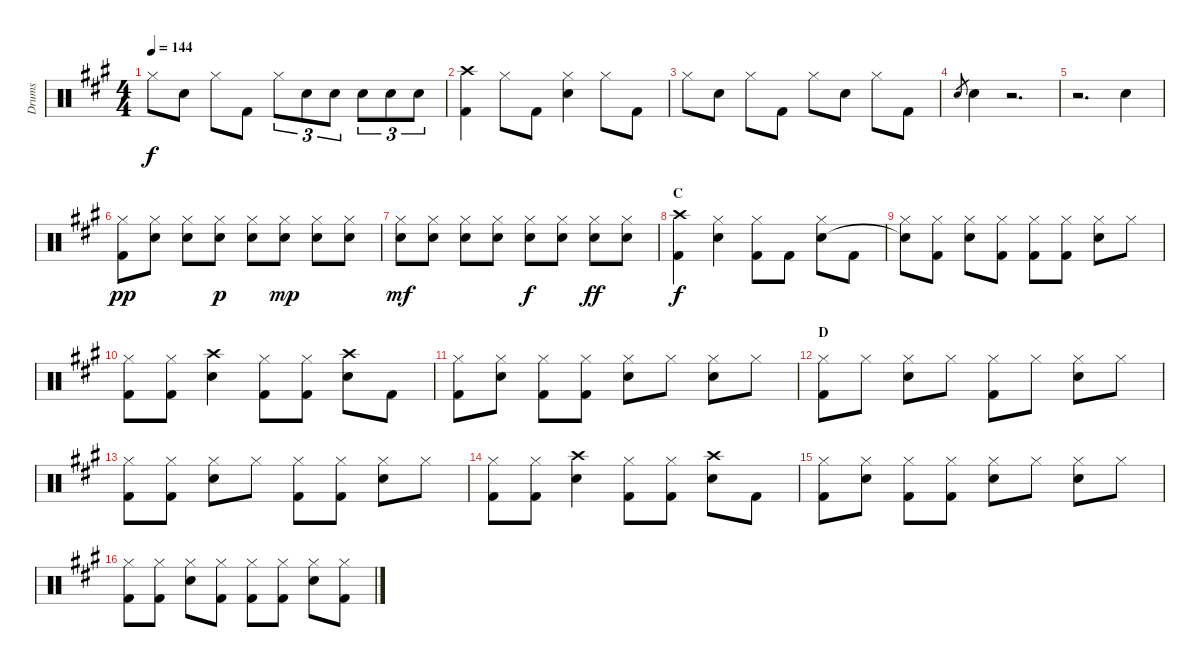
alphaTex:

\track ("Drums" "Drums") {instrument percussion}
\staff {score}
\articulation defaults
\ts (4 4)
\tempo 144
\clef neutral
\ks a "Hi-Hat (closed)".8{dy f} "Snare (hit) 2".8 "Hi-Hat (closed)".8 "Kick (hit) 2".8 "Hi-Hat (closed)".8{tu (3 2)} "Snare (hit) 2".8{tu (3 2)} "Snare (hit) 2".8{tu (3 2)} "Snare (hit) 2".8{tu (3 2)} "Snare (hit) 2".8{tu (3 2)} "Snare (hit) 2".8{tu (3 2)}
|
("Crash high (hit)" "Kick (hit) 2").4 "Hi-Hat (closed)".8 "Kick (hit) 2".8 ("Hi-Hat (closed)" "Snare (hit) 2").4 "Hi-Hat (closed)".8 "Kick (hit) 2".8 |
"Hi-Hat (closed)".8 "Snare (hit) 2".8 "Hi-Hat (closed)".8 "Kick (hit) 2".8 "Hi-Hat (closed)".8 "Snare (hit) 2".8 "Hi-Hat (closed)".8 "Kick (hit) 2".8 |
"Snare (hit) 2".8{gr} "Snare (hit) 2".4 r.2{d} |
r.2{d} "Snare (hit) 2".4 |
("Hi-Hat (closed)" "Kick (hit) 2").8{dy pp} ("Hi-Hat (closed)" "Snare (hit) 2").8 ("Hi-Hat (closed)" "Snare (hit) 2").8 ("Hi-Hat (closed)" "Snare (hit) 2").8{dy p} ("Hi-Hat (closed)" "Snare (hit) 2").8 ("Hi-Hat (closed)" "Snare (hit) 2").8{dy mp} ("Hi-Hat (closed)" "Snare (hit) 2").8 ("Hi-Hat (closed)" "Snare (hit) 2").8 |
("Hi-Hat (closed)" "Snare (hit) 2").8{dy mf} ("Hi-Hat (closed)" "Snare (hit) 2").8 ("Hi-Hat (closed)" "Snare (hit) 2").8 ("Hi-Hat (closed)" "Snare (hit) 2").8 ("Hi-Hat (closed)" "Snare (hit) 2").8{dy f} ("Hi-Hat (closed)" "Snare (hit) 2").8 ("Hi-Hat (closed)" "Snare (hit) 2").8{dy ff} ("Hi-Hat (closed)" "Snare (hit) 2").8 |
\section ("" "C")
("Crash high (hit)" "Kick (hit) 2").4{dy f} ("Hi-Hat (closed)" "Snare (hit) 2").4 ("Hi-Hat (closed)" "Kick (hit) 2").8 "Kick (hit) 2".8 ("Hi-Hat (closed)" "Snare (hit) 2").8 "Kick (hit) 2".8 |
("Hi-Hat (closed)" "Snare (hit)"{t}).8 ("Hi-Hat (closed)" "Kick (hit) 2").8 ("Hi-Hat (closed)" "Snare (hit) 2").8 ("Hi-Hat (closed)" "Kick (hit) 2").8 ("Hi-Hat (closed)" "Kick (hit) 2").8 ("Hi-Hat (closed)" "Kick (hit) 2").8 ("Hi-Hat (closed)" "Snare (hit) 2").8 "Hi-Hat (closed)".8 |
("Hi-Hat (closed)" "Kick (hit) 2").8 ("Hi-Hat (closed)" "Kick (hit) 2").8 ("Crash high (hit)" "Snare (hit) 2").4 ("Hi-Hat (closed)" "Kick (hit) 2").8 ("Hi-Hat (closed)" "Kick (hit) 2").8 ("Crash high (hit)" "Snare (hit) 2").8 "Kick (hit) 2".8 |
("Hi-Hat (closed)" "Kick (hit) 2").8 ("Hi-Hat (closed)" "Snare (hit) 2").8 ("Hi-Hat (closed)" "Kick (hit) 2").8 ("Hi-Hat (closed)" "Kick (hit) 2").8 ("Hi-Hat (closed)" "Snare (hit) 2").8 "Hi-Hat (closed)".8 ("Hi-Hat (closed)" "Snare (hit) 2").8 "Hi-Hat (closed)".8 |
\section ("" "D")
("Hi-Hat (closed)" "Kick (hit) 2").8 "Hi-Hat (closed)".8 ("Hi-Hat (closed)" "Snare (hit) 2").8 "Hi-Hat (closed)".8 ("Hi-Hat (closed)" "Kick (hit) 2").8 "Hi-Hat (closed)".8 ("Hi-Hat (closed)" "Snare (hit) 2").8 "Hi-Hat (closed)".8 |
("Hi-Hat (closed)" "Kick (hit) 2").8 ("Hi-Hat (closed)" "Kick (hit) 2").8 ("Hi-Hat (closed)" "Snare (hit) 2").8 "Hi-Hat (closed)".8 ("Hi-Hat (closed)" "Kick (hit) 2").8 ("Hi-Hat (closed)" "Kick (hit) 2").8 ("Hi-Hat (closed)" "Snare (hit) 2").8 "Hi-Hat (closed)".8 |
("Hi-Hat (closed)" "Kick (hit) 2").8 ("Hi-Hat (closed)" "Kick (hit) 2").8 ("Crash high (hit)" "Snare (hit) 2").4 ("Hi-Hat (closed)" "Kick (hit) 2").8 ("Hi-Hat (closed)" "Kick (hit) 2").8 ("Crash high (hit)" "Snare (hit) 2").8 "Kick (hit) 2".8 |
("Hi-Hat (closed)" "Kick (hit) 2").8 ("Hi-Hat (closed)" "Snare (hit) 2").8 ("Hi-Hat (closed)" "Kick (hit) 2").8 ("Hi-Hat (closed)" "Kick (hit) 2").8 ("Hi-Hat (closed)" "Snare (hit) 2").8 "Hi-Hat (closed)".8 ("Hi-Hat (closed)" "Snare (hit) 2").8 "Hi-Hat (closed)".8 |
("Hi-Hat (closed)" "Kick (hit) 2").8 ("Hi-Hat (closed)" "Kick (hit) 2").8 ("Hi-Hat (closed)" "Snare (hit) 2").8 ("Hi-Hat (closed)" "Kick (hit) 2").8 ("Hi-Hat (closed)" "Kick (hit) 2").8 ("Hi-Hat (closed)" "Kick (hit) 2").8 ("Hi-Hat (closed)" "Snare (hit) 2").8 ("Hi-Hat (closed)" "Kick (hit) 2").8
